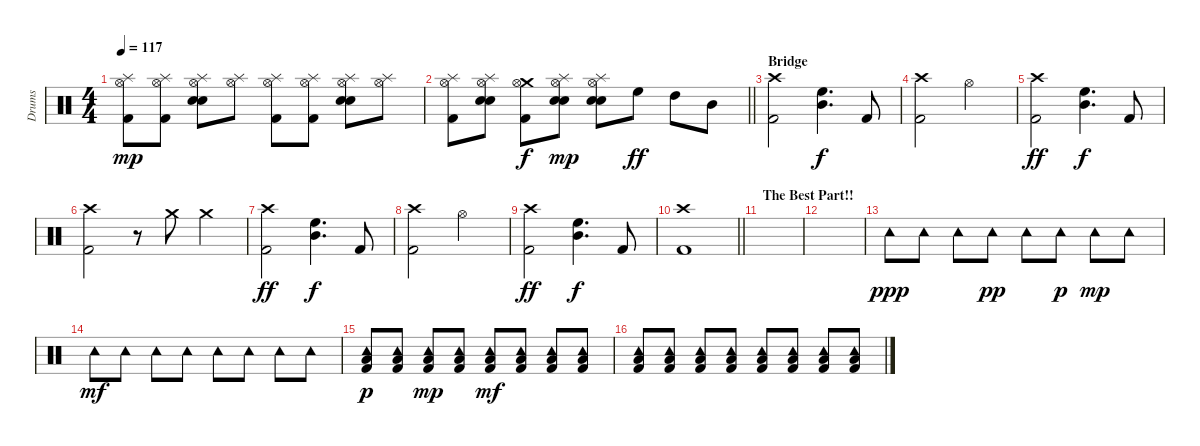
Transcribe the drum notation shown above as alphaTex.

\track ("Drums" "Drums") {instrument percussion}
\staff {score}
\articulation defaults
\ts (4 4)
\tempo 117
\clef neutral
\ks c
("Splash (hit)" "Hi-Hat (open)" "Kick (hit) 2").8{dy mp} ("Splash (hit)" "Hi-Hat (open)" "Kick (hit) 2").8 ("Splash (hit)" "Hi-Hat (open)" "Electric Snare (hit)" "Snare (hit) 2").8 ("Splash (hit)" "Hi-Hat (open)").8 ("Splash (hit)" "Hi-Hat (open)" "Kick (hit) 2").8 ("Splash (hit)" "Hi-Hat (open)" "Kick (hit) 2").8 ("Splash (hit)" "Hi-Hat (open)" "Electric Snare (hit)" "Snare (hit) 2").8 ("Splash (hit)" "Hi-Hat (open)").8 |
\barLineRight lightlight
("Splash (hit)" "Hi-Hat (open)" "Kick (hit) 2").8 ("Splash (hit)" "Hi-Hat (open)" "Electric Snare (hit)" "Snare (hit) 2").8 ("Crash medium (hit)" "Hi-Hat (open)" "Kick (hit) 2").8{dy f} ("Splash (hit)" "Hi-Hat (open)" "Electric Snare (hit)" "Snare (hit) 2").8{dy mp} ("Splash (hit)" "Hi-Hat (open)" "Electric Snare (hit)" "Snare (hit) 2").8 "High Floor Tom (hit)".8{dy ff} "High Tom (hit)".8 "Mid Tom (hit)".8 |
\section ("" "Bridge")
("Crash high (hit)" "Kick (hit) 2").2 ("Mid Tom (hit)" "High Floor Tom (hit)").4{d dy f} "Kick (hit) 2".8 |
("Crash high (hit)" "Kick (hit) 2").2 "Hi-Hat (open)".2 |
("Crash high (hit)" "Kick (hit) 2").2{dy ff} ("Mid Tom (hit)" "High Floor Tom (hit)").4{d dy f} "Kick (hit) 2".8 |
("Crash high (hit)" "Kick (hit) 2").2 r.8 "Crash medium (hit)".8 "Crash medium (hit)".4 |
("Crash high (hit)" "Kick (hit) 2").2{dy ff} ("Mid Tom (hit)" "High Floor Tom (hit)").4{d dy f} "Kick (hit) 2".8 |
("Crash high (hit)" "Kick (hit) 2").2 "Hi-Hat (open)".2 |
("Crash high (hit)" "Kick (hit) 2").2{dy ff} ("Mid Tom (hit)" "High Floor Tom (hit)").4{d dy f} "Kick (hit) 2".8 |
\barLineRight lightlight
("Crash high (hit)" "Kick (hit) 2").1 |
\section ("" "The Best Part!!")
|
|
"Tambourine (hit)".8{dy ppp} "Tambourine (hit)".8 "Tambourine (hit)".8 "Tambourine (hit)".8{dy pp} "Tambourine (hit)".8 "Tambourine (hit)".8{dy p} "Tambourine (hit)".8{dy mp} "Tambourine (hit)".8 |
"Tambourine (hit)".8{dy mf} "Tambourine (hit)".8 "Tambourine (hit)".8 "Tambourine (hit)".8 "Tambourine (hit)".8 "Tambourine (hit)".8 "Tambourine (hit)".8 "Tambourine (hit)".8 |
("Tambourine (hit)" "Low Tom (hit)" "Kick (hit) 2").8{dy p} ("Tambourine (hit)" "Low Tom (hit)" "Kick (hit) 2").8 ("Tambourine (hit)" "Low Tom (hit)" "Kick (hit) 2").8{dy mp} ("Tambourine (hit)" "Low Tom (hit)" "Kick (hit) 2").8 ("Tambourine (hit)" "Low Tom (hit)" "Kick (hit) 2").8{dy mf} ("Tambourine (hit)" "Low Tom (hit)" "Kick (hit) 2").8 ("Tambourine (hit)" "Low Tom (hit)" "Kick (hit) 2").8 ("Tambourine (hit)" "Low Tom (hit)" "Kick (hit) 2").8 |
("Tambourine (hit)" "Low Tom (hit)" "Kick (hit) 2").8 ("Tambourine (hit)" "Low Tom (hit)" "Kick (hit) 2").8 ("Tambourine (hit)" "Low Tom (hit)" "Kick (hit) 2").8 ("Tambourine (hit)" "Low Tom (hit)" "Kick (hit) 2").8 ("Tambourine (hit)" "Low Tom (hit)" "Kick (hit) 2").8 ("Tambourine (hit)" "Low Tom (hit)" "Kick (hit) 2").8 ("Tambourine (hit)" "Low Tom (hit)" "Kick (hit) 2").8 ("Tambourine (hit)" "Low Tom (hit)" "Kick (hit) 2").8
